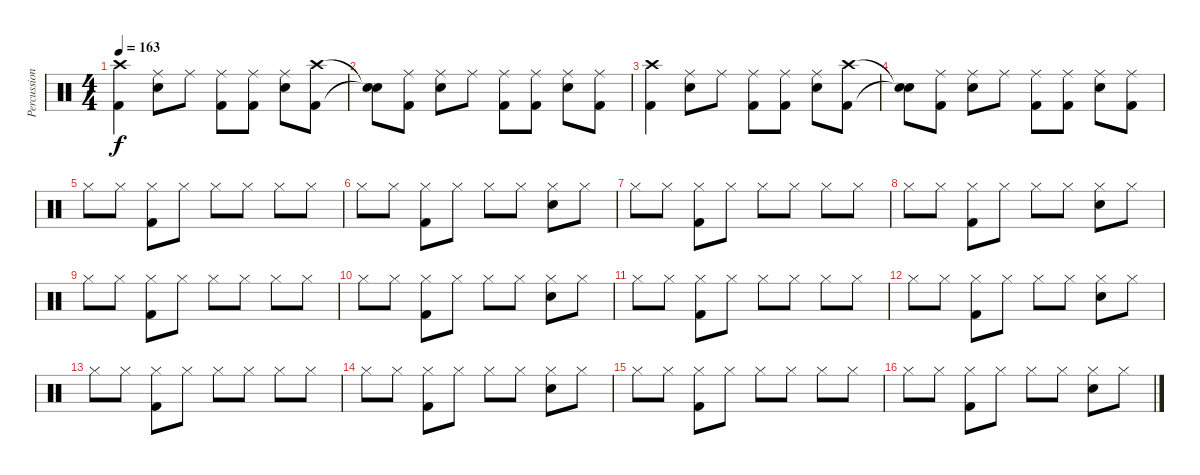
\track ("Percussion" "Percussion") {instrument percussion}
\staff {score}
\articulation defaults
\ts (4 4)
\tempo 163
\clef neutral
\ks c
("Crash high (hit)" "Kick (hit) 2").4{dy f} ("Ride (middle)" "Snare (hit) 2").8 "Ride (middle)".8 ("Ride (middle)" "Kick (hit) 2").8 ("Ride (middle)" "Kick (hit) 2").8 ("Ride (middle)" "Snare (hit) 2").8 ("Crash high (hit)" "Kick (hit) 2").8 |
("Snare (hit)"{t} "Snare (hit)"{t}).8 ("Ride (middle)" "Kick (hit) 2").8 ("Ride (middle)" "Snare (hit) 2").8 "Ride (middle)".8 ("Ride (middle)" "Kick (hit) 2").8 ("Ride (middle)" "Kick (hit) 2").8 ("Ride (middle)" "Snare (hit) 2").8 ("Ride (middle)" "Kick (hit) 2").8 |
("Crash high (hit)" "Kick (hit) 2").4 ("Ride (middle)" "Snare (hit) 2").8 "Ride (middle)".8 ("Ride (middle)" "Kick (hit) 2").8 ("Ride (middle)" "Kick (hit) 2").8 ("Ride (middle)" "Snare (hit) 2").8 ("Crash high (hit)" "Kick (hit) 2").8 |
("Snare (hit)"{t} "Snare (hit)"{t}).8 ("Ride (middle)" "Kick (hit) 2").8 ("Ride (middle)" "Snare (hit) 2").8 "Ride (middle)".8 ("Ride (middle)" "Kick (hit) 2").8 ("Ride (middle)" "Kick (hit) 2").8 ("Ride (middle)" "Snare (hit) 2").8 ("Ride (middle)" "Kick (hit) 2").8 |
"Hi-Hat (closed)".8 "Hi-Hat (closed)".8 ("Hi-Hat (closed)" "Kick (hit) 2").8 "Hi-Hat (closed)".8 "Hi-Hat (closed)".8 "Hi-Hat (closed)".8 "Hi-Hat (closed)".8 "Hi-Hat (closed)".8 |
"Hi-Hat (closed)".8 "Hi-Hat (closed)".8 ("Hi-Hat (closed)" "Kick (hit) 2").8 "Hi-Hat (closed)".8 "Hi-Hat (closed)".8 "Hi-Hat (closed)".8 ("Hi-Hat (closed)" "Snare (hit) 2").8 "Hi-Hat (closed)".8 |
"Hi-Hat (closed)".8 "Hi-Hat (closed)".8 ("Hi-Hat (closed)" "Kick (hit) 2").8 "Hi-Hat (closed)".8 "Hi-Hat (closed)".8 "Hi-Hat (closed)".8 "Hi-Hat (closed)".8 "Hi-Hat (closed)".8 |
"Hi-Hat (closed)".8 "Hi-Hat (closed)".8 ("Hi-Hat (closed)" "Kick (hit) 2").8 "Hi-Hat (closed)".8 "Hi-Hat (closed)".8 "Hi-Hat (closed)".8 ("Hi-Hat (closed)" "Snare (hit) 2").8 "Hi-Hat (closed)".8 |
"Hi-Hat (closed)".8 "Hi-Hat (closed)".8 ("Hi-Hat (closed)" "Kick (hit) 2").8 "Hi-Hat (closed)".8 "Hi-Hat (closed)".8 "Hi-Hat (closed)".8 "Hi-Hat (closed)".8 "Hi-Hat (closed)".8 |
"Hi-Hat (closed)".8 "Hi-Hat (closed)".8 ("Hi-Hat (closed)" "Kick (hit) 2").8 "Hi-Hat (closed)".8 "Hi-Hat (closed)".8 "Hi-Hat (closed)".8 ("Hi-Hat (closed)" "Snare (hit) 2").8 "Hi-Hat (closed)".8 |
"Hi-Hat (closed)".8 "Hi-Hat (closed)".8 ("Hi-Hat (closed)" "Kick (hit) 2").8 "Hi-Hat (closed)".8 "Hi-Hat (closed)".8 "Hi-Hat (closed)".8 "Hi-Hat (closed)".8 "Hi-Hat (closed)".8 |
"Hi-Hat (closed)".8 "Hi-Hat (closed)".8 ("Hi-Hat (closed)" "Kick (hit) 2").8 "Hi-Hat (closed)".8 "Hi-Hat (closed)".8 "Hi-Hat (closed)".8 ("Hi-Hat (closed)" "Snare (hit) 2").8 "Hi-Hat (closed)".8 |
"Hi-Hat (closed)".8 "Hi-Hat (closed)".8 ("Hi-Hat (closed)" "Kick (hit) 2").8 "Hi-Hat (closed)".8 "Hi-Hat (closed)".8 "Hi-Hat (closed)".8 "Hi-Hat (closed)".8 "Hi-Hat (closed)".8 |
"Hi-Hat (closed)".8 "Hi-Hat (closed)".8 ("Hi-Hat (closed)" "Kick (hit) 2").8 "Hi-Hat (closed)".8 "Hi-Hat (closed)".8 "Hi-Hat (closed)".8 ("Hi-Hat (closed)" "Snare (hit) 2").8 "Hi-Hat (closed)".8 |
"Hi-Hat (closed)".8 "Hi-Hat (closed)".8 ("Hi-Hat (closed)" "Kick (hit) 2").8 "Hi-Hat (closed)".8 "Hi-Hat (closed)".8 "Hi-Hat (closed)".8 "Hi-Hat (closed)".8 "Hi-Hat (closed)".8 |
"Hi-Hat (closed)".8 "Hi-Hat (closed)".8 ("Hi-Hat (closed)" "Kick (hit) 2").8 "Hi-Hat (closed)".8 "Hi-Hat (closed)".8 "Hi-Hat (closed)".8 ("Hi-Hat (closed)" "Snare (hit) 2").8 "Hi-Hat (closed)".8
